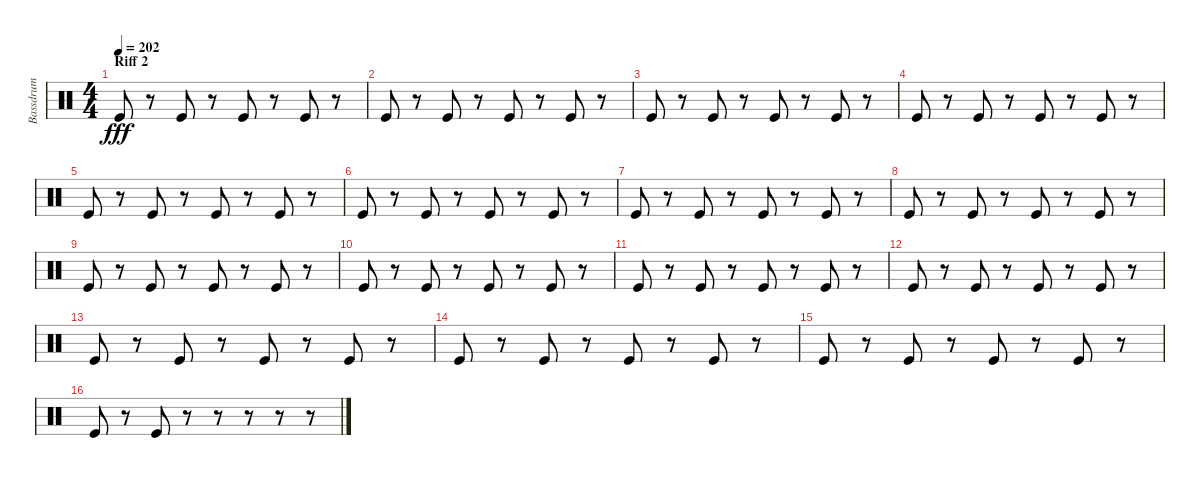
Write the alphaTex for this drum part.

\track ("Bassdrum" "Bassdrum") {instrument percussion}
\staff {score}
\articulation defaults
\ts (4 4)
\section ("" "Riff 2")
\tempo 202
\clef neutral
\ks c "Kick (hit)".8{dy fff}
r.8 "Kick (hit)".8 r.8 "Kick (hit)".8 r.8 "Kick (hit)".8 r.8 |
"Kick (hit)".8 r.8 "Kick (hit)".8 r.8 "Kick (hit)".8 r.8 "Kick (hit)".8 r.8 |
"Kick (hit)".8 r.8 "Kick (hit)".8 r.8 "Kick (hit)".8 r.8 "Kick (hit)".8 r.8 |
"Kick (hit)".8 r.8 "Kick (hit)".8 r.8 "Kick (hit)".8 r.8 "Kick (hit)".8 r.8 |
"Kick (hit)".8 r.8 "Kick (hit)".8 r.8 "Kick (hit)".8 r.8 "Kick (hit)".8 r.8 |
"Kick (hit)".8 r.8 "Kick (hit)".8 r.8 "Kick (hit)".8 r.8 "Kick (hit)".8 r.8 |
"Kick (hit)".8 r.8 "Kick (hit)".8 r.8 "Kick (hit)".8 r.8 "Kick (hit)".8 r.8 |
"Kick (hit)".8 r.8 "Kick (hit)".8 r.8 "Kick (hit)".8 r.8 "Kick (hit)".8 r.8 |
"Kick (hit)".8 r.8 "Kick (hit)".8 r.8 "Kick (hit)".8 r.8 "Kick (hit)".8 r.8 |
"Kick (hit)".8 r.8 "Kick (hit)".8 r.8 "Kick (hit)".8 r.8 "Kick (hit)".8 r.8 |
"Kick (hit)".8 r.8 "Kick (hit)".8 r.8 "Kick (hit)".8 r.8 "Kick (hit)".8 r.8 |
"Kick (hit)".8 r.8 "Kick (hit)".8 r.8 "Kick (hit)".8 r.8 "Kick (hit)".8 r.8 |
"Kick (hit)".8 r.8 "Kick (hit)".8 r.8 "Kick (hit)".8 r.8 "Kick (hit)".8 r.8 |
"Kick (hit)".8 r.8 "Kick (hit)".8 r.8 "Kick (hit)".8 r.8 "Kick (hit)".8 r.8 |
"Kick (hit)".8 r.8 "Kick (hit)".8 r.8 "Kick (hit)".8 r.8 "Kick (hit)".8 r.8 |
"Kick (hit)".8 r.8 "Kick (hit)".8 r.8 r.8 r.8 r.8 r.8
